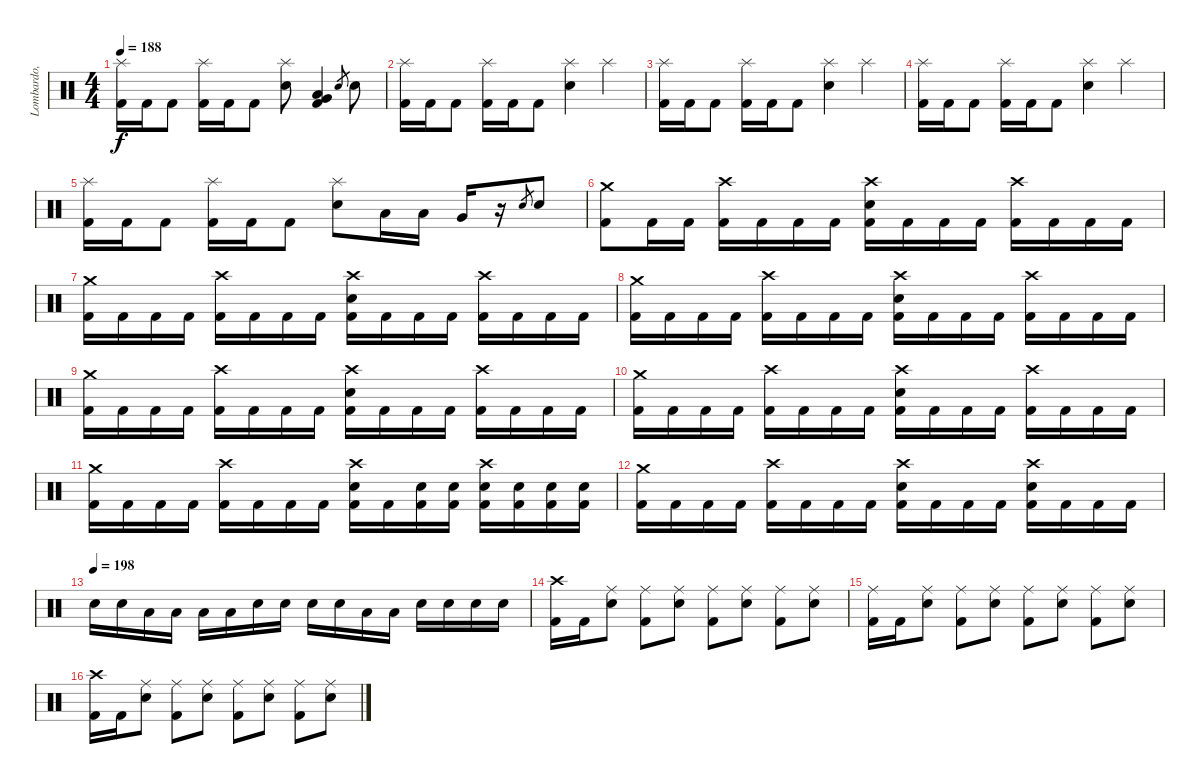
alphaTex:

\track ("Lombardo, Dave" "Lombardo, ") {instrument percussion}
\staff {score}
\articulation defaults
\ts (4 4)
\tempo 188
\clef neutral
\ks c
("Kick (hit) 2" "Splash (hit)").16{dy f} "Kick (hit) 2".16 "Kick (hit) 2".8 ("Kick (hit) 2" "Splash (hit)").16 "Kick (hit) 2".16 "Kick (hit) 2".8 ("Electric Snare (hit)" "Splash (hit)").8 ("Kick (hit) 2" "Very Low Tom (hit)" "Low Floor Tom (hit)").4 "Electric Snare (hit)".8{gr} "Electric Snare (hit)".8 |
("Kick (hit) 2" "Splash (hit)").16 "Kick (hit) 2".16 "Kick (hit) 2".8 ("Kick (hit) 2" "Splash (hit)").16 "Kick (hit) 2".16 "Kick (hit) 2".8 ("Electric Snare (hit)" "Splash (hit)").4 "Splash (hit)".4 |
("Kick (hit) 2" "Splash (hit)").16 "Kick (hit) 2".16 "Kick (hit) 2".8 ("Kick (hit) 2" "Splash (hit)").16 "Kick (hit) 2".16 "Kick (hit) 2".8 ("Electric Snare (hit)" "Splash (hit)").4 "Splash (hit)".4 |
("Kick (hit) 2" "Splash (hit)").16 "Kick (hit) 2".16 "Kick (hit) 2".8 ("Kick (hit) 2" "Splash (hit)").16 "Kick (hit) 2".16 "Kick (hit) 2".8 ("Electric Snare (hit)" "Splash (hit)").4 "Splash (hit)".4 |
("Kick (hit) 2" "Splash (hit)").16 "Kick (hit) 2".16 "Kick (hit) 2".8 ("Kick (hit) 2" "Splash (hit)").16 "Kick (hit) 2".16 "Kick (hit) 2".8 ("Electric Snare (hit)" "Splash (hit)").8 "Low Tom (hit)".16 "Low Tom (hit)".16 "Very Low Tom (hit)".16 r.16 "Electric Snare (hit)".8{gr} "Electric Snare (hit)".8 |
("Crash medium (hit)" "Kick (hit) 2").8 "Kick (hit) 2".16 "Kick (hit) 2".16 ("Crash high (hit)" "Kick (hit) 2").16 "Kick (hit) 2".16 "Kick (hit) 2".16 "Kick (hit) 2".16 ("Crash high (hit)" "Electric Snare (hit)" "Kick (hit) 2").16 "Kick (hit) 2".16 "Kick (hit) 2".16 "Kick (hit) 2".16 ("Crash high (hit)" "Kick (hit) 2").16 "Kick (hit) 2".16 "Kick (hit) 2".16 "Kick (hit) 2".16 |
("Crash medium (hit)" "Kick (hit) 2").16 "Kick (hit) 2".16 "Kick (hit) 2".16 "Kick (hit) 2".16 ("Crash high (hit)" "Kick (hit) 2").16 "Kick (hit) 2".16 "Kick (hit) 2".16 "Kick (hit) 2".16 ("Crash high (hit)" "Electric Snare (hit)" "Kick (hit) 2").16 "Kick (hit) 2".16 "Kick (hit) 2".16 "Kick (hit) 2".16 ("Crash high (hit)" "Kick (hit) 2").16 "Kick (hit) 2".16 "Kick (hit) 2".16 "Kick (hit) 2".16 |
("Crash medium (hit)" "Kick (hit) 2").16 "Kick (hit) 2".16 "Kick (hit) 2".16 "Kick (hit) 2".16 ("Crash high (hit)" "Kick (hit) 2").16 "Kick (hit) 2".16 "Kick (hit) 2".16 "Kick (hit) 2".16 ("Crash high (hit)" "Electric Snare (hit)" "Kick (hit) 2").16 "Kick (hit) 2".16 "Kick (hit) 2".16 "Kick (hit) 2".16 ("Crash high (hit)" "Kick (hit) 2").16 "Kick (hit) 2".16 "Kick (hit) 2".16 "Kick (hit) 2".16 |
("Crash medium (hit)" "Kick (hit) 2").16 "Kick (hit) 2".16 "Kick (hit) 2".16 "Kick (hit) 2".16 ("Crash high (hit)" "Kick (hit) 2").16 "Kick (hit) 2".16 "Kick (hit) 2".16 "Kick (hit) 2".16 ("Crash high (hit)" "Electric Snare (hit)" "Kick (hit) 2").16 "Kick (hit) 2".16 "Kick (hit) 2".16 "Kick (hit) 2".16 ("Crash high (hit)" "Kick (hit) 2").16 "Kick (hit) 2".16 "Kick (hit) 2".16 "Kick (hit) 2".16 |
("Crash medium (hit)" "Kick (hit) 2").16 "Kick (hit) 2".16 "Kick (hit) 2".16 "Kick (hit) 2".16 ("Crash high (hit)" "Kick (hit) 2").16 "Kick (hit) 2".16 "Kick (hit) 2".16 "Kick (hit) 2".16 ("Crash high (hit)" "Electric Snare (hit)" "Kick (hit) 2").16 "Kick (hit) 2".16 "Kick (hit) 2".16 "Kick (hit) 2".16 ("Crash high (hit)" "Kick (hit) 2").16 "Kick (hit) 2".16 "Kick (hit) 2".16 "Kick (hit) 2".16 |
("Crash medium (hit)" "Kick (hit) 2").16 "Kick (hit) 2".16 "Kick (hit) 2".16 "Kick (hit) 2".16 ("Crash high (hit)" "Kick (hit) 2").16 "Kick (hit) 2".16 "Kick (hit) 2".16 "Kick (hit) 2".16 ("Crash high (hit)" "Electric Snare (hit)" "Kick (hit) 2").16 "Kick (hit) 2".16 ("Electric Snare (hit)" "Kick (hit) 2").16 ("Electric Snare (hit)" "Kick (hit) 2").16 ("Crash high (hit)" "Electric Snare (hit)" "Kick (hit) 2").16 ("Electric Snare (hit)" "Kick (hit) 2").16 ("Electric Snare (hit)" "Kick (hit) 2").16 ("Electric Snare (hit)" "Kick (hit) 2").16 |
("Crash medium (hit)" "Kick (hit) 2").16 "Kick (hit) 2".16 "Kick (hit) 2".16 "Kick (hit) 2".16 ("Crash high (hit)" "Kick (hit) 2").16 "Kick (hit) 2".16 "Kick (hit) 2".16 "Kick (hit) 2".16 ("Crash high (hit)" "Electric Snare (hit)" "Kick (hit) 2").16 "Kick (hit) 2".16 "Kick (hit) 2".16 "Kick (hit) 2".16 ("Crash high (hit)" "Electric Snare (hit)" "Kick (hit) 2").16 "Kick (hit) 2".16 "Kick (hit) 2".16 "Kick (hit) 2".16 |
\tempo (198)
"Electric Snare (hit)".16 "Electric Snare (hit)".16 "Low Tom (hit)".16 "Low Tom (hit)".16 "Low Tom (hit)".16 "Low Tom (hit)".16 "Electric Snare (hit)".16 "Electric Snare (hit)".16 "Electric Snare (hit)".16 "Electric Snare (hit)".16 "Low Tom (hit)".16 "Low Tom (hit)".16 "Electric Snare (hit)".16 "Electric Snare (hit)".16 "Electric Snare (hit)".16 "Electric Snare (hit)".16 |
("Kick (hit) 2" "Crash high (hit)").16 "Kick (hit) 2".16 ("Electric Snare (hit)" "Ride (middle)").8 ("Kick (hit) 2" "Ride (middle)").8 ("Electric Snare (hit)" "Ride (middle)").8 ("Kick (hit) 2" "Ride (middle)").8 ("Electric Snare (hit)" "Ride (middle)").8 ("Kick (hit) 2" "Ride (middle)").8 ("Electric Snare (hit)" "Ride (middle)").8 |
("Kick (hit) 2" "Ride (middle)").16 "Kick (hit) 2".16 ("Electric Snare (hit)" "Ride (middle)").8 ("Kick (hit) 2" "Ride (middle)").8 ("Electric Snare (hit)" "Ride (middle)").8 ("Kick (hit) 2" "Ride (middle)").8 ("Electric Snare (hit)" "Ride (middle)").8 ("Kick (hit) 2" "Ride (middle)").8 ("Electric Snare (hit)" "Ride (middle)").8 |
("Kick (hit) 2" "Crash high (hit)").16 "Kick (hit) 2".16 ("Electric Snare (hit)" "Ride (middle)").8 ("Kick (hit) 2" "Ride (middle)").8 ("Electric Snare (hit)" "Ride (middle)").8 ("Kick (hit) 2" "Ride (middle)").8 ("Electric Snare (hit)" "Ride (middle)").8 ("Kick (hit) 2" "Ride (middle)").8 ("Electric Snare (hit)" "Ride (middle)").8
